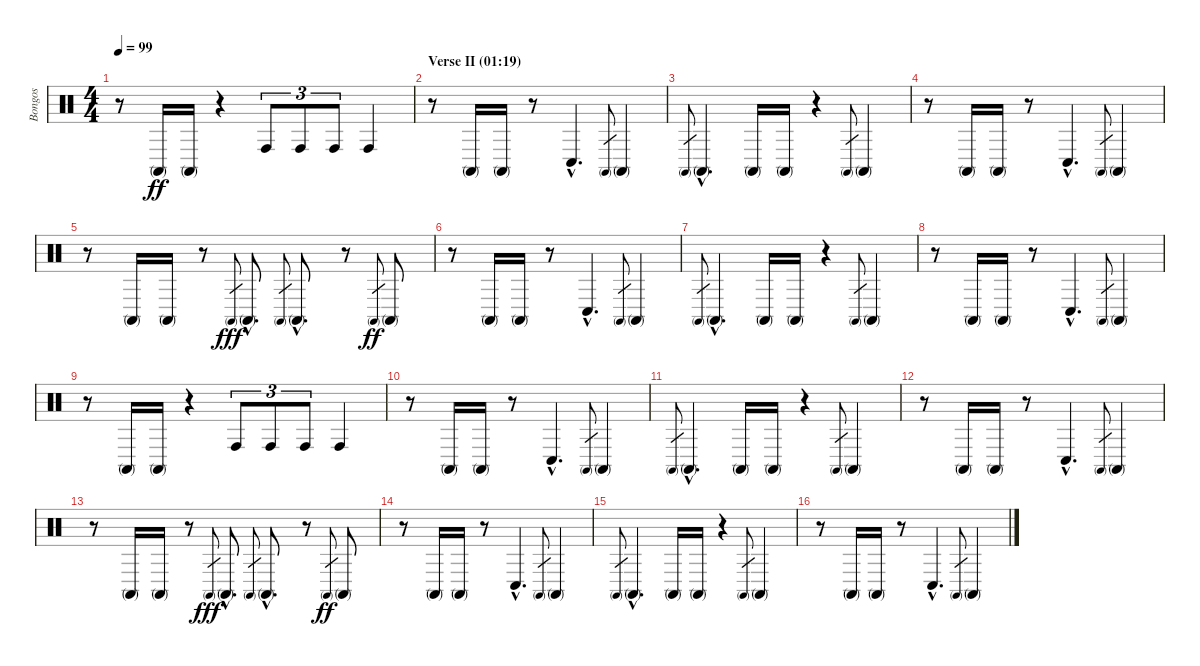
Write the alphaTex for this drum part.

\track ("Bongos" "Bongos") {instrument percussion}
\staff {score}
\articulation defaults
\ts (4 4)
\tempo 99
\clef neutral
\ks c
r.8{dy ff} "Conga high (mute)".16 "Conga high (mute)".16 r.4 "Conga high (hit)".8{tu (3 2)} "Conga high (hit)".8{tu (3 2)} "Conga high (hit)".8{tu (3 2)} "Conga high (hit)".4 |
\section ("" "Verse II (01:19)")
r.8 "Conga high (mute)".16 "Conga high (mute)".16 r.8 "Conga low (hit)"{hac}.4{d} "Conga high (mute)".8{gr} "Conga high (mute)".4 |
"Conga high (mute)".8{gr} "Conga high (mute)"{hac}.4{d} "Conga high (mute)".16 "Conga high (mute)".16 r.4 "Conga high (mute)".8{gr} "Conga high (mute)".4 |
r.8 "Conga high (mute)".16 "Conga high (mute)".16 r.8 "Conga low (hit)"{hac}.4{d} "Conga high (mute)".8{gr} "Conga high (mute)".4 |
r.8 "Conga high (mute)".16 "Conga high (mute)".16 r.8 "Conga high (mute)".8{gr dy fff} "Conga high (mute)"{hac}.8{d} "Conga high (mute)".8{gr} "Conga high (mute)"{hac}.8{d} r.8 "Conga high (mute)".8{gr dy ff} "Conga high (mute)".8 |
r.8 "Conga high (mute)".16 "Conga high (mute)".16 r.8 "Conga low (hit)"{hac}.4{d} "Conga high (mute)".8{gr} "Conga high (mute)".4 |
"Conga high (mute)".8{gr} "Conga high (mute)"{hac}.4{d} "Conga high (mute)".16 "Conga high (mute)".16 r.4 "Conga high (mute)".8{gr} "Conga high (mute)".4 |
r.8 "Conga high (mute)".16 "Conga high (mute)".16 r.8 "Conga low (hit)"{hac}.4{d} "Conga high (mute)".8{gr} "Conga high (mute)".4 |
r.8 "Conga high (mute)".16 "Conga high (mute)".16 r.4 "Conga high (hit)".8{tu (3 2)} "Conga high (hit)".8{tu (3 2)} "Conga high (hit)".8{tu (3 2)} "Conga high (hit)".4 |
r.8 "Conga high (mute)".16 "Conga high (mute)".16 r.8 "Conga low (hit)"{hac}.4{d} "Conga high (mute)".8{gr} "Conga high (mute)".4 |
"Conga high (mute)".8{gr} "Conga high (mute)"{hac}.4{d} "Conga high (mute)".16 "Conga high (mute)".16 r.4 "Conga high (mute)".8{gr} "Conga high (mute)".4 |
r.8 "Conga high (mute)".16 "Conga high (mute)".16 r.8 "Conga low (hit)"{hac}.4{d} "Conga high (mute)".8{gr} "Conga high (mute)".4 |
r.8 "Conga high (mute)".16 "Conga high (mute)".16 r.8 "Conga high (mute)".8{gr dy fff} "Conga high (mute)"{hac}.8{d} "Conga high (mute)".8{gr} "Conga high (mute)"{hac}.8{d} r.8 "Conga high (mute)".8{gr dy ff} "Conga high (mute)".8 |
r.8 "Conga high (mute)".16 "Conga high (mute)".16 r.8 "Conga low (hit)"{hac}.4{d} "Conga high (mute)".8{gr} "Conga high (mute)".4 |
"Conga high (mute)".8{gr} "Conga high (mute)"{hac}.4{d} "Conga high (mute)".16 "Conga high (mute)".16 r.4 "Conga high (mute)".8{gr} "Conga high (mute)".4 |
r.8 "Conga high (mute)".16 "Conga high (mute)".16 r.8 "Conga low (hit)"{hac}.4{d} "Conga high (mute)".8{gr} "Conga high (mute)".4
